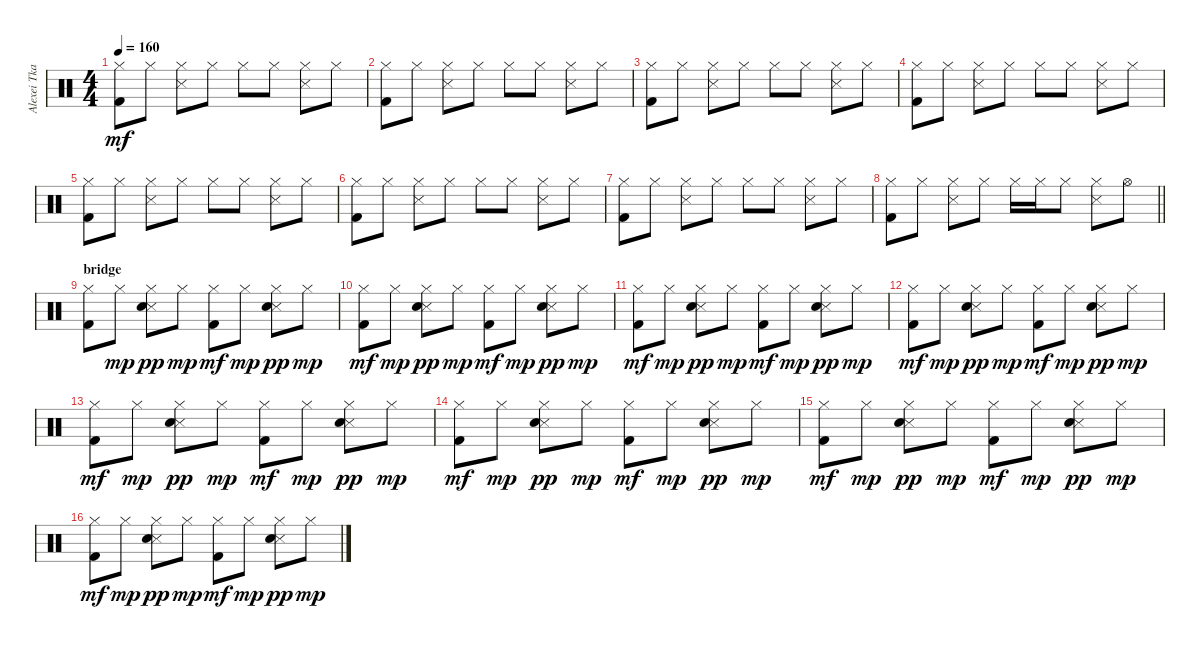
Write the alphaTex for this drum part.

\track ("Alexei Tkachevskiy " "Alexei Tka") {instrument percussion}
\staff {score}
\articulation defaults
\ts (4 4)
\tempo 160
\clef neutral
\ks c
("Hi-Hat (closed)" "Kick (hit) 2").8{dy mf} "Hi-Hat (closed)".8 ("Hi-Hat (closed)" "Snare (side stick) 3").8 "Hi-Hat (closed)".8 "Hi-Hat (closed)".8 "Hi-Hat (closed)".8 ("Hi-Hat (closed)" "Snare (side stick) 3").8 "Hi-Hat (closed)".8 |
("Hi-Hat (closed)" "Kick (hit) 2").8 "Hi-Hat (closed)".8 ("Hi-Hat (closed)" "Snare (side stick) 3").8 "Hi-Hat (closed)".8 "Hi-Hat (closed)".8 "Hi-Hat (closed)".8 ("Hi-Hat (closed)" "Snare (side stick) 3").8 "Hi-Hat (closed)".8 |
("Hi-Hat (closed)" "Kick (hit) 2").8 "Hi-Hat (closed)".8 ("Hi-Hat (closed)" "Snare (side stick) 3").8 "Hi-Hat (closed)".8 "Hi-Hat (closed)".8 "Hi-Hat (closed)".8 ("Hi-Hat (closed)" "Snare (side stick) 3").8 "Hi-Hat (closed)".8 |
("Hi-Hat (closed)" "Kick (hit) 2").8 "Hi-Hat (closed)".8 ("Hi-Hat (closed)" "Snare (side stick) 3").8 "Hi-Hat (closed)".8 "Hi-Hat (closed)".8 "Hi-Hat (closed)".8 ("Hi-Hat (closed)" "Snare (side stick) 3").8 "Hi-Hat (closed)".8 |
("Hi-Hat (closed)" "Kick (hit) 2").8 "Hi-Hat (closed)".8 ("Hi-Hat (closed)" "Snare (side stick) 3").8 "Hi-Hat (closed)".8 "Hi-Hat (closed)".8 "Hi-Hat (closed)".8 ("Hi-Hat (closed)" "Snare (side stick) 3").8 "Hi-Hat (closed)".8 |
("Hi-Hat (closed)" "Kick (hit) 2").8 "Hi-Hat (closed)".8 ("Hi-Hat (closed)" "Snare (side stick) 3").8 "Hi-Hat (closed)".8 "Hi-Hat (closed)".8 "Hi-Hat (closed)".8 ("Hi-Hat (closed)" "Snare (side stick) 3").8 "Hi-Hat (closed)".8 |
("Hi-Hat (closed)" "Kick (hit) 2").8 "Hi-Hat (closed)".8 ("Hi-Hat (closed)" "Snare (side stick) 3").8 "Hi-Hat (closed)".8 "Hi-Hat (closed)".8 "Hi-Hat (closed)".8 ("Hi-Hat (closed)" "Snare (side stick) 3").8 "Hi-Hat (closed)".8 |
\barLineRight lightlight
("Hi-Hat (closed)" "Kick (hit) 2").8 "Hi-Hat (closed)".8 ("Hi-Hat (closed)" "Snare (side stick) 3").8 "Hi-Hat (closed)".8 "Hi-Hat (closed)".16 "Hi-Hat (closed)".16 "Hi-Hat (closed)".8 ("Hi-Hat (closed)" "Snare (side stick) 3").8 "Hi-Hat (open)".8 |
\section ("" "bridge")
("Hi-Hat (closed)" "Kick (hit) 2").8 "Hi-Hat (closed)".8{dy mp} ("Hi-Hat (closed)" "Snare (side stick) 3" "Snare (hit) 2").8{dy pp} "Hi-Hat (closed)".8{dy mp} ("Hi-Hat (closed)" "Kick (hit) 2").8{dy mf} "Hi-Hat (closed)".8{dy mp} ("Hi-Hat (closed)" "Snare (side stick) 3" "Snare (hit) 2").8{dy pp} "Hi-Hat (closed)".8{dy mp} |
("Hi-Hat (closed)" "Kick (hit) 2").8{dy mf} "Hi-Hat (closed)".8{dy mp} ("Hi-Hat (closed)" "Snare (side stick) 3" "Snare (hit) 2").8{dy pp} "Hi-Hat (closed)".8{dy mp} ("Hi-Hat (closed)" "Kick (hit) 2").8{dy mf} "Hi-Hat (closed)".8{dy mp} ("Hi-Hat (closed)" "Snare (side stick) 3" "Snare (hit) 2").8{dy pp} "Hi-Hat (closed)".8{dy mp} |
("Hi-Hat (closed)" "Kick (hit) 2").8{dy mf} "Hi-Hat (closed)".8{dy mp} ("Hi-Hat (closed)" "Snare (side stick) 3" "Snare (hit) 2").8{dy pp} "Hi-Hat (closed)".8{dy mp} ("Hi-Hat (closed)" "Kick (hit) 2").8{dy mf} "Hi-Hat (closed)".8{dy mp} ("Hi-Hat (closed)" "Snare (side stick) 3" "Snare (hit) 2").8{dy pp} "Hi-Hat (closed)".8{dy mp} |
("Hi-Hat (closed)" "Kick (hit) 2").8{dy mf} "Hi-Hat (closed)".8{dy mp} ("Hi-Hat (closed)" "Snare (side stick) 3" "Snare (hit) 2").8{dy pp} "Hi-Hat (closed)".8{dy mp} ("Hi-Hat (closed)" "Kick (hit) 2").8{dy mf} "Hi-Hat (closed)".8{dy mp} ("Hi-Hat (closed)" "Snare (side stick) 3" "Snare (hit) 2").8{dy pp} "Hi-Hat (closed)".8{dy mp} |
("Hi-Hat (closed)" "Kick (hit) 2").8{dy mf} "Hi-Hat (closed)".8{dy mp} ("Hi-Hat (closed)" "Snare (side stick) 3" "Snare (hit) 2").8{dy pp} "Hi-Hat (closed)".8{dy mp} ("Hi-Hat (closed)" "Kick (hit) 2").8{dy mf} "Hi-Hat (closed)".8{dy mp} ("Hi-Hat (closed)" "Snare (side stick) 3" "Snare (hit) 2").8{dy pp} "Hi-Hat (closed)".8{dy mp} |
("Hi-Hat (closed)" "Kick (hit) 2").8{dy mf} "Hi-Hat (closed)".8{dy mp} ("Hi-Hat (closed)" "Snare (side stick) 3" "Snare (hit) 2").8{dy pp} "Hi-Hat (closed)".8{dy mp} ("Hi-Hat (closed)" "Kick (hit) 2").8{dy mf} "Hi-Hat (closed)".8{dy mp} ("Hi-Hat (closed)" "Snare (side stick) 3" "Snare (hit) 2").8{dy pp} "Hi-Hat (closed)".8{dy mp} |
("Hi-Hat (closed)" "Kick (hit) 2").8{dy mf} "Hi-Hat (closed)".8{dy mp} ("Hi-Hat (closed)" "Snare (side stick) 3" "Snare (hit) 2").8{dy pp} "Hi-Hat (closed)".8{dy mp} ("Hi-Hat (closed)" "Kick (hit) 2").8{dy mf} "Hi-Hat (closed)".8{dy mp} ("Hi-Hat (closed)" "Snare (side stick) 3" "Snare (hit) 2").8{dy pp} "Hi-Hat (closed)".8{dy mp} |
("Hi-Hat (closed)" "Kick (hit) 2").8{dy mf} "Hi-Hat (closed)".8{dy mp} ("Hi-Hat (closed)" "Snare (side stick) 3" "Snare (hit) 2").8{dy pp} "Hi-Hat (closed)".8{dy mp} ("Hi-Hat (closed)" "Kick (hit) 2").8{dy mf} "Hi-Hat (closed)".8{dy mp} ("Hi-Hat (closed)" "Snare (side stick) 3" "Snare (hit) 2").8{dy pp} "Hi-Hat (closed)".8{dy mp}
